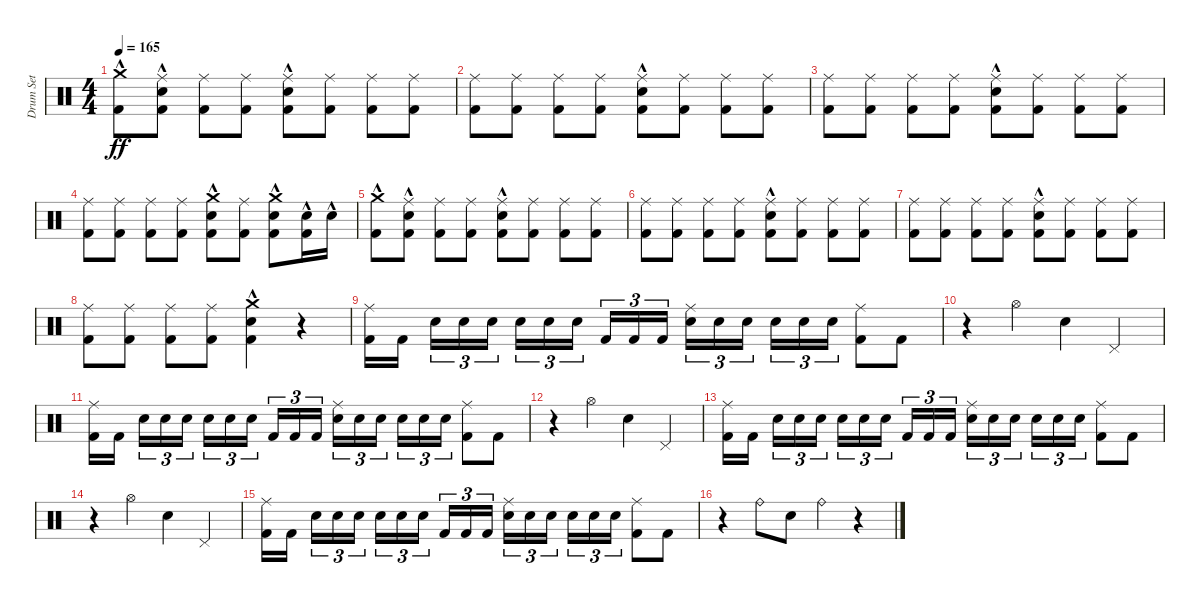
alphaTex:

\track ("Drum Set" "Drum Set") {instrument percussion}
\staff {score}
\articulation defaults
\ts (4 4)
\tempo 165
\clef neutral
\ks c
("Crash medium (hit)"{hac} "Kick (hit) 2").8{dy ff} ("Ride (middle)" "Snare (hit) 2"{hac} "Kick (hit) 2").8 ("Ride (middle)" "Kick (hit) 2").8 ("Ride (middle)" "Kick (hit) 2").8 ("Ride (middle)" "Snare (hit) 2"{hac} "Kick (hit) 2").8 ("Ride (middle)" "Kick (hit) 2").8 ("Ride (middle)" "Kick (hit) 2").8 ("Ride (middle)" "Kick (hit) 2").8 |
("Ride (middle)" "Kick (hit) 2").8 ("Ride (middle)" "Kick (hit) 2").8 ("Ride (middle)" "Kick (hit) 2").8 ("Ride (middle)" "Kick (hit) 2").8 ("Ride (middle)" "Snare (hit) 2"{hac} "Kick (hit) 2").8 ("Ride (middle)" "Kick (hit) 2").8 ("Ride (middle)" "Kick (hit) 2").8 ("Ride (middle)" "Kick (hit) 2").8 |
("Ride (middle)" "Kick (hit) 2").8 ("Ride (middle)" "Kick (hit) 2").8 ("Ride (middle)" "Kick (hit) 2").8 ("Ride (middle)" "Kick (hit) 2").8 ("Ride (middle)" "Snare (hit) 2"{hac} "Kick (hit) 2").8 ("Ride (middle)" "Kick (hit) 2").8 ("Ride (middle)" "Kick (hit) 2").8 ("Ride (middle)" "Kick (hit) 2").8 |
("Ride (middle)" "Kick (hit) 2").8 ("Ride (middle)" "Kick (hit) 2").8 ("Ride (middle)" "Kick (hit) 2").8 ("Ride (middle)" "Kick (hit) 2").8 ("Crash medium (hit)" "Snare (hit) 2"{hac} "Kick (hit) 2").8 ("Ride (middle)" "Kick (hit) 2").8 ("Crash medium (hit)" "Snare (hit) 2"{hac} "Kick (hit) 2").8 ("Snare (hit) 2"{hac} "Kick (hit) 2").16 "Snare (hit) 2"{hac}.16 |
("Crash medium (hit)"{hac} "Kick (hit) 2").8 ("Ride (middle)" "Snare (hit) 2"{hac} "Kick (hit) 2").8 ("Ride (middle)" "Kick (hit) 2").8 ("Ride (middle)" "Kick (hit) 2").8 ("Ride (middle)" "Snare (hit) 2"{hac} "Kick (hit) 2").8 ("Ride (middle)" "Kick (hit) 2").8 ("Ride (middle)" "Kick (hit) 2").8 ("Ride (middle)" "Kick (hit) 2").8 |
("Ride (middle)" "Kick (hit) 2").8 ("Ride (middle)" "Kick (hit) 2").8 ("Ride (middle)" "Kick (hit) 2").8 ("Ride (middle)" "Kick (hit) 2").8 ("Ride (middle)" "Snare (hit) 2"{hac} "Kick (hit) 2").8 ("Ride (middle)" "Kick (hit) 2").8 ("Ride (middle)" "Kick (hit) 2").8 ("Ride (middle)" "Kick (hit) 2").8 |
("Ride (middle)" "Kick (hit) 2").8 ("Ride (middle)" "Kick (hit) 2").8 ("Ride (middle)" "Kick (hit) 2").8 ("Ride (middle)" "Kick (hit) 2").8 ("Ride (middle)" "Snare (hit) 2"{hac} "Kick (hit) 2").8 ("Ride (middle)" "Kick (hit) 2").8 ("Ride (middle)" "Kick (hit) 2").8 ("Ride (middle)" "Kick (hit) 2").8 |
("Ride (middle)" "Kick (hit) 2").8 ("Ride (middle)" "Kick (hit) 2").8 ("Ride (middle)" "Kick (hit) 2").8 ("Ride (middle)" "Kick (hit) 2").8 ("Crash medium (hit)" "Snare (hit) 2"{hac} "Kick (hit) 2").4 r.4 |
("Ride (middle)" "Kick (hit) 2").16 "Kick (hit) 2".16{beam splitsecondary} "Snare (hit) 2".16{tu (3 2)} "Snare (hit) 2".16{tu (3 2)} "Snare (hit) 2".16{tu (3 2)} "Snare (hit) 2".16{tu (3 2)} "Snare (hit) 2".16{tu (3 2)} "Snare (hit) 2".16{tu (3 2) beam splitsecondary} "Kick (hit) 2".16{tu (3 2)} "Kick (hit) 2".16{tu (3 2)} "Kick (hit) 2".16{tu (3 2)} ("Ride (middle)" "Snare (hit) 2").16{tu (3 2)} "Snare (hit) 2".16{tu (3 2)} "Snare (hit) 2".16{tu (3 2) beam splitsecondary} "Snare (hit) 2".16{tu (3 2)} "Snare (hit) 2".16{tu (3 2)} "Snare (hit) 2".16{tu (3 2)} ("Ride (middle)" "Kick (hit) 2").8 "Kick (hit) 2".8 |
r.4 "Hi-Hat (open)".4 "Snare (hit) 2".4 "Pedal Hi-Hat (hit)".4 |
("Ride (middle)" "Kick (hit) 2").16 "Kick (hit) 2".16{beam splitsecondary} "Snare (hit) 2".16{tu (3 2)} "Snare (hit) 2".16{tu (3 2)} "Snare (hit) 2".16{tu (3 2)} "Snare (hit) 2".16{tu (3 2)} "Snare (hit) 2".16{tu (3 2)} "Snare (hit) 2".16{tu (3 2) beam splitsecondary} "Kick (hit) 2".16{tu (3 2)} "Kick (hit) 2".16{tu (3 2)} "Kick (hit) 2".16{tu (3 2)} ("Ride (middle)" "Snare (hit) 2").16{tu (3 2)} "Snare (hit) 2".16{tu (3 2)} "Snare (hit) 2".16{tu (3 2) beam splitsecondary} "Snare (hit) 2".16{tu (3 2)} "Snare (hit) 2".16{tu (3 2)} "Snare (hit) 2".16{tu (3 2)} ("Ride (middle)" "Kick (hit) 2").8 "Kick (hit) 2".8 |
r.4 "Hi-Hat (open)".4 "Snare (hit) 2".4 "Pedal Hi-Hat (hit)".4 |
("Ride (middle)" "Kick (hit) 2").16 "Kick (hit) 2".16{beam splitsecondary} "Snare (hit) 2".16{tu (3 2)} "Snare (hit) 2".16{tu (3 2)} "Snare (hit) 2".16{tu (3 2)} "Snare (hit) 2".16{tu (3 2)} "Snare (hit) 2".16{tu (3 2)} "Snare (hit) 2".16{tu (3 2) beam splitsecondary} "Kick (hit) 2".16{tu (3 2)} "Kick (hit) 2".16{tu (3 2)} "Kick (hit) 2".16{tu (3 2)} ("Ride (middle)" "Snare (hit) 2").16{tu (3 2)} "Snare (hit) 2".16{tu (3 2)} "Snare (hit) 2".16{tu (3 2) beam splitsecondary} "Snare (hit) 2".16{tu (3 2)} "Snare (hit) 2".16{tu (3 2)} "Snare (hit) 2".16{tu (3 2)} ("Ride (middle)" "Kick (hit) 2").8 "Kick (hit) 2".8 |
r.4 "Hi-Hat (open)".4 "Snare (hit) 2".4 "Pedal Hi-Hat (hit)".4 |
("Ride (middle)" "Kick (hit) 2").16 "Kick (hit) 2".16{beam splitsecondary} "Snare (hit) 2".16{tu (3 2)} "Snare (hit) 2".16{tu (3 2)} "Snare (hit) 2".16{tu (3 2)} "Snare (hit) 2".16{tu (3 2)} "Snare (hit) 2".16{tu (3 2)} "Snare (hit) 2".16{tu (3 2) beam splitsecondary} "Kick (hit) 2".16{tu (3 2)} "Kick (hit) 2".16{tu (3 2)} "Kick (hit) 2".16{tu (3 2)} ("Ride (middle)" "Snare (hit) 2").16{tu (3 2)} "Snare (hit) 2".16{tu (3 2)} "Snare (hit) 2".16{tu (3 2) beam splitsecondary} "Snare (hit) 2".16{tu (3 2)} "Snare (hit) 2".16{tu (3 2)} "Snare (hit) 2".16{tu (3 2)} ("Ride (middle)" "Kick (hit) 2").8 "Kick (hit) 2".8 |
r.4 "Ride (bell)".8 "Snare (hit) 2".8 "Ride (bell)".4 r.4
